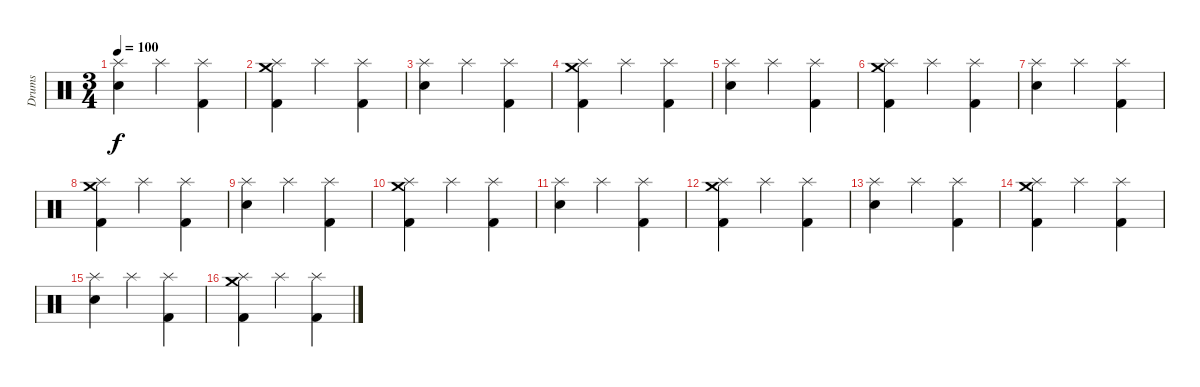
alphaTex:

\track ("Drums" "Drums") {instrument percussion}
\staff {score}
\articulation defaults
\ts (3 4)
\tempo 100
\clef neutral
\ks c
("Splash (hit)" "Electric Snare (hit)").4{dy f} "Splash (hit)".4 ("Splash (hit)" "Kick (hit) 2").4 |
("Splash (hit)" "Crash medium (hit)" "Kick (hit) 2").4 "Splash (hit)".4 ("Splash (hit)" "Kick (hit) 2").4 |
("Splash (hit)" "Electric Snare (hit)").4 "Splash (hit)".4 ("Splash (hit)" "Kick (hit) 2").4 |
("Splash (hit)" "Crash medium (hit)" "Kick (hit) 2").4 "Splash (hit)".4 ("Splash (hit)" "Kick (hit) 2").4 |
("Splash (hit)" "Electric Snare (hit)").4 "Splash (hit)".4 ("Splash (hit)" "Kick (hit) 2").4 |
("Splash (hit)" "Crash medium (hit)" "Kick (hit) 2").4 "Splash (hit)".4 ("Splash (hit)" "Kick (hit) 2").4 |
("Splash (hit)" "Electric Snare (hit)").4 "Splash (hit)".4 ("Splash (hit)" "Kick (hit) 2").4 |
("Splash (hit)" "Crash medium (hit)" "Kick (hit) 2").4 "Splash (hit)".4 ("Splash (hit)" "Kick (hit) 2").4 |
("Splash (hit)" "Electric Snare (hit)").4 "Splash (hit)".4 ("Splash (hit)" "Kick (hit) 2").4 |
("Splash (hit)" "Crash medium (hit)" "Kick (hit) 2").4 "Splash (hit)".4 ("Splash (hit)" "Kick (hit) 2").4 |
("Splash (hit)" "Electric Snare (hit)").4 "Splash (hit)".4 ("Splash (hit)" "Kick (hit) 2").4 |
("Splash (hit)" "Crash medium (hit)" "Kick (hit) 2").4 "Splash (hit)".4 ("Splash (hit)" "Kick (hit) 2").4 |
("Splash (hit)" "Electric Snare (hit)").4 "Splash (hit)".4 ("Splash (hit)" "Kick (hit) 2").4 |
("Splash (hit)" "Crash medium (hit)" "Kick (hit) 2").4 "Splash (hit)".4 ("Splash (hit)" "Kick (hit) 2").4 |
("Splash (hit)" "Electric Snare (hit)").4 "Splash (hit)".4 ("Splash (hit)" "Kick (hit) 2").4 |
("Splash (hit)" "Crash medium (hit)" "Kick (hit) 2").4 "Splash (hit)".4 ("Splash (hit)" "Kick (hit) 2").4
